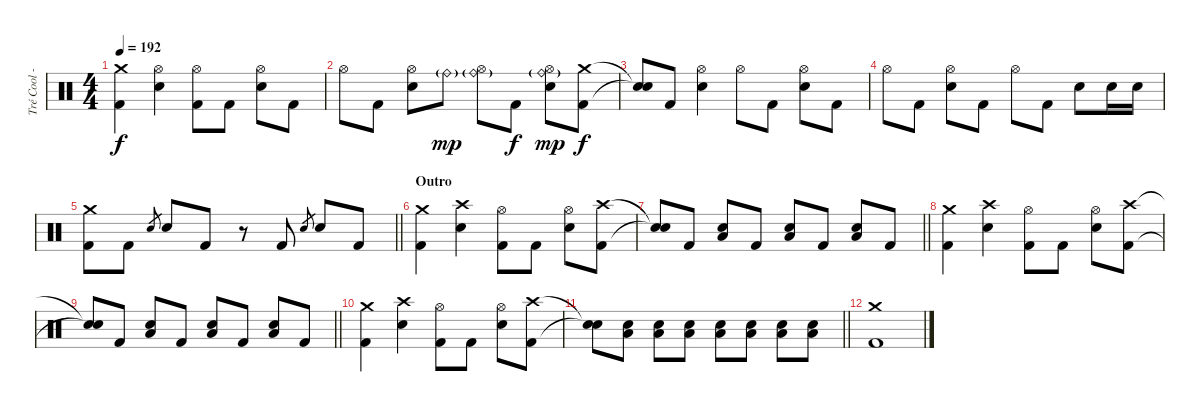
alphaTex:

\track ("Tré Cool - Drums" "Tré Cool -") {instrument percussion}
\staff {score}
\articulation defaults
\ts (4 4)
\tempo 192
\clef neutral
\ks c
("Crash medium (hit)" "Kick (hit) 2").4{dy f} ("Hi-Hat (open)" "Electric Snare (hit)").4 ("Hi-Hat (open)" "Kick (hit) 2").8 "Kick (hit) 2".8 ("Hi-Hat (open)" "Electric Snare (hit)").8 "Kick (hit) 2".8 |
"Hi-Hat (open)".8 "Kick (hit) 2".8 ("Hi-Hat (open)" "Electric Snare (hit)").8 "Ride (bell)"{g}.8{dy mp} ("Hi-Hat (open)" "Ride (bell)"{g}).8 "Kick (hit) 2".8{dy f} ("Hi-Hat (open)" "Ride (bell)"{g} "Electric Snare (hit)").8{dy mp} ("Crash medium (hit)" "Kick (hit) 2").8{dy f} |
("Snare (hit)"{t} "Snare (hit)"{t}).8 "Kick (hit) 2".8 ("Hi-Hat (open)" "Electric Snare (hit)").4 "Hi-Hat (open)".8 "Kick (hit) 2".8 ("Hi-Hat (open)" "Electric Snare (hit)").8 "Kick (hit) 2".8 |
"Hi-Hat (open)".8 "Kick (hit) 2".8 ("Hi-Hat (open)" "Electric Snare (hit)").8 "Kick (hit) 2".8 "Hi-Hat (open)".8 "Kick (hit) 2".8 "Electric Snare (hit)".8 "Electric Snare (hit)".16 "Electric Snare (hit)".16 |
\barLineRight lightlight
("Crash medium (hit)" "Kick (hit) 2").8 "Kick (hit) 2".8 "Electric Snare (hit)".8{gr} "Electric Snare (hit)".8 "Kick (hit) 2".8 r.8 "Kick (hit) 2".8 "Electric Snare (hit)".8{gr} "Electric Snare (hit)".8 "Kick (hit) 2".8 |
\section ("" "Outro")
("Crash medium (hit)" "Kick (hit) 2").4 ("Crash high (hit)" "Electric Snare (hit)").4 ("Hi-Hat (open)" "Kick (hit) 2").8 "Kick (hit) 2".8 ("Hi-Hat (open)" "Electric Snare (hit)").8 ("Crash high (hit)" "Kick (hit) 2").8 |
\barLineRight lightlight
("Snare (hit)"{t} "Snare (hit)"{t}).8 "Kick (hit) 2".8 ("Low Floor Tom (hit)" "Electric Snare (hit)").8 "Kick (hit) 2".8 ("Low Floor Tom (hit)" "Electric Snare (hit)").8 "Kick (hit) 2".8 ("Low Floor Tom (hit)" "Electric Snare (hit)").8 "Kick (hit) 2".8 |
("Crash medium (hit)" "Kick (hit) 2").4 ("Crash high (hit)" "Electric Snare (hit)").4 ("Hi-Hat (open)" "Kick (hit) 2").8 "Kick (hit) 2".8 ("Hi-Hat (open)" "Electric Snare (hit)").8 ("Crash high (hit)" "Kick (hit) 2").8 |
\barLineRight lightlight
("Snare (hit)"{t} "Snare (hit)"{t}).8 "Kick (hit) 2".8 ("Low Floor Tom (hit)" "Electric Snare (hit)").8 "Kick (hit) 2".8 ("Low Floor Tom (hit)" "Electric Snare (hit)").8 "Kick (hit) 2".8 ("Low Floor Tom (hit)" "Electric Snare (hit)").8 "Kick (hit) 2".8 |
("Crash medium (hit)" "Kick (hit) 2").4 ("Crash high (hit)" "Electric Snare (hit)").4 ("Hi-Hat (open)" "Kick (hit) 2").8 "Kick (hit) 2".8 ("Hi-Hat (open)" "Electric Snare (hit)").8 ("Crash high (hit)" "Kick (hit) 2").8 |
\barLineRight lightlight
("Snare (hit)"{t} "Snare (hit)"{t}).8 ("Low Floor Tom (hit)" "Electric Snare (hit)").8 ("Low Floor Tom (hit)" "Electric Snare (hit)").8 ("Low Floor Tom (hit)" "Electric Snare (hit)").8 ("Low Floor Tom (hit)" "Electric Snare (hit)").8 ("Low Floor Tom (hit)" "Electric Snare (hit)").8 ("Low Floor Tom (hit)" "Electric Snare (hit)").8 ("Low Floor Tom (hit)" "Electric Snare (hit)").8 |
("Crash medium (hit)" "Kick (hit) 2").1{volume 0}
